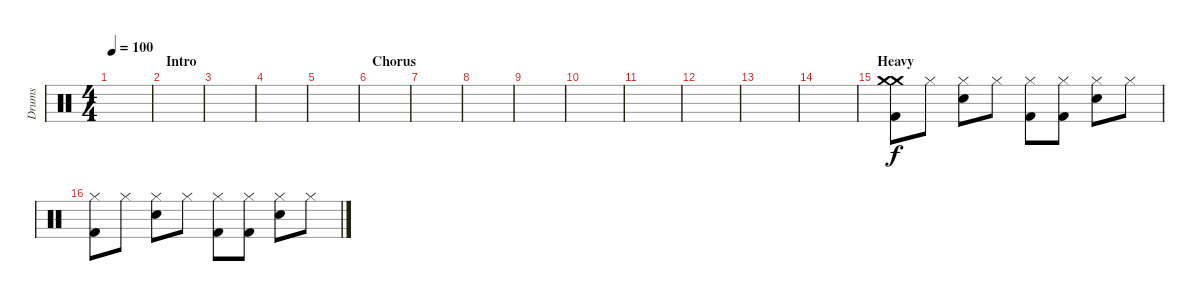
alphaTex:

\track ("Drums" "Drums") {instrument percussion}
\staff {score}
\articulation defaults
\ts (4 4)
\tempo 100
\clef neutral
\ks c
|
\section ("" "Intro")
|
|
|
|
\section ("" "Chorus")
|
|
|
|
|
|
|
|
|
\section ("" "Heavy")
("Crash medium (hit)" "Crash medium (hit)" "Kick (hit) 2").8 "Hi-Hat (closed)".8 ("Hi-Hat (closed)" "Electric Snare (hit)").8 "Hi-Hat (closed)".8 ("Hi-Hat (closed)" "Kick (hit) 2").8 ("Hi-Hat (closed)" "Kick (hit) 2").8 ("Hi-Hat (closed)" "Electric Snare (hit)").8 "Hi-Hat (closed)".8 |
("Hi-Hat (closed)" "Kick (hit) 2").8 "Hi-Hat (closed)".8 ("Hi-Hat (closed)" "Electric Snare (hit)").8 "Hi-Hat (closed)".8 ("Hi-Hat (closed)" "Kick (hit) 2").8 ("Hi-Hat (closed)" "Kick (hit) 2").8 ("Hi-Hat (closed)" "Electric Snare (hit)").8 "Hi-Hat (closed)".8
